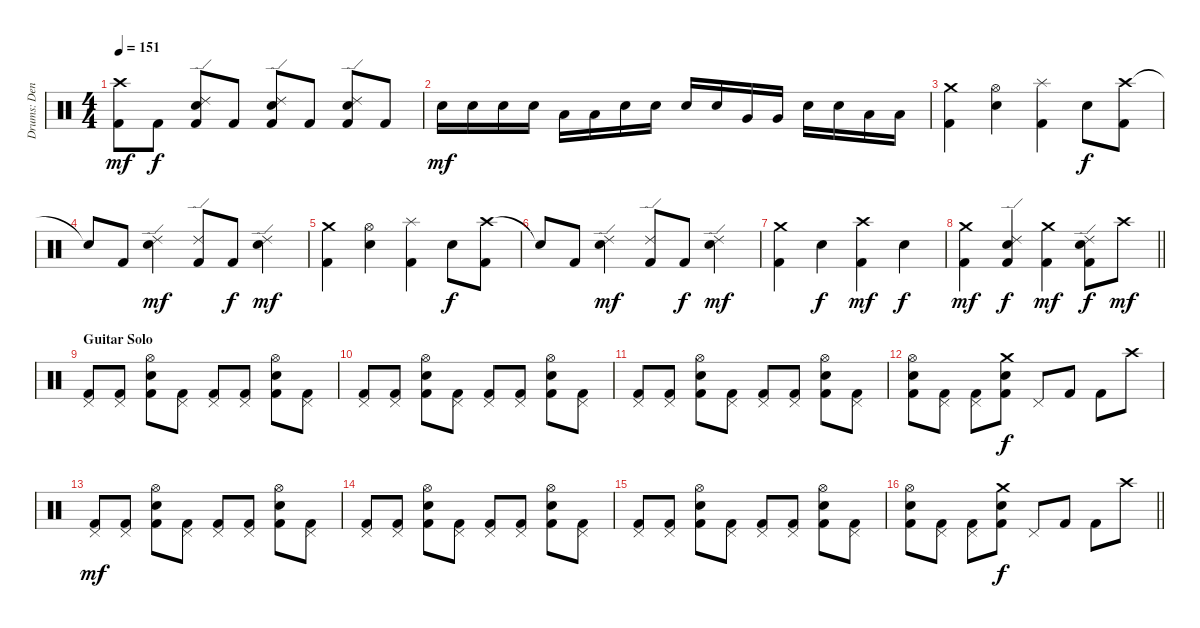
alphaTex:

\track ("Drums: Denny Carmassi" "Drums: Den") {instrument percussion}
\staff {score}
\articulation defaults
\ts (4 4)
\tempo 151
\clef neutral
\ks c
("Crash high (hit)" "Kick (hit) 2").8{dy mf} "Kick (hit) 2".8{dy f} ("Ride (edge) 2" "Snare (hit) 2" "Kick (hit) 2").8 "Kick (hit) 2".8 ("Ride (edge) 2" "Snare (hit) 2" "Kick (hit) 2").8 "Kick (hit) 2".8 ("Ride (edge) 2" "Snare (hit) 2" "Kick (hit) 2").8 "Kick (hit) 2".8 |
"Snare (hit) 2".16{dy mf} "Snare (hit) 2".16 "Snare (hit) 2".16 "Snare (hit) 2".16 "Low Tom (hit)".16 "Low Tom (hit)".16 "Snare (hit) 2".16 "Snare (hit) 2".16 "Snare (hit) 2".16 "Snare (hit) 2".16 "Very Low Tom (hit)".16 "Very Low Tom (hit)".16 "Snare (hit) 2".16 "Snare (hit) 2".16 "Low Floor Tom (hit)".16 "Low Floor Tom (hit)".16 |
("Crash medium (hit)" "Kick (hit) 2").4 ("Hi-Hat (open)" "Snare (hit) 2").4 ("Splash (hit)" "Kick (hit) 2").4 "Snare (hit) 2".8{dy f} ("Crash high (hit)" "Kick (hit) 2").8 |
"Snare (hit)"{t}.8 "Kick (hit) 2".8 ("Ride (edge) 2" "Snare (hit) 2").4{dy mf} ("Ride (edge) 2" "Kick (hit) 2").8 "Kick (hit) 2".8{dy f} ("Ride (edge) 2" "Snare (hit) 2").4{dy mf} |
("Crash medium (hit)" "Kick (hit) 2").4 ("Hi-Hat (open)" "Snare (hit) 2").4 ("Splash (hit)" "Kick (hit) 2").4 "Snare (hit) 2".8{dy f} ("Crash high (hit)" "Kick (hit) 2").8 |
"Snare (hit)"{t}.8 "Kick (hit) 2".8 ("Ride (edge) 2" "Snare (hit) 2").4{dy mf} ("Ride (edge) 2" "Kick (hit) 2").8 "Kick (hit) 2".8{dy f} ("Ride (edge) 2" "Snare (hit) 2").4{dy mf} |
("Crash medium (hit)" "Kick (hit) 2").4 "Snare (hit) 2".4{dy f} ("Crash high (hit)" "Kick (hit) 2").4{dy mf} "Snare (hit) 2".4{dy f} |
\barLineRight lightlight
("Crash medium (hit)" "Kick (hit) 2").4{dy mf} ("Ride (edge) 2" "Snare (hit) 2" "Kick (hit) 2").4{dy f} ("Crash medium (hit)" "Kick (hit) 2").4{dy mf} ("Ride (edge) 2" "Snare (hit) 2" "Kick (hit) 2").8{dy f} "Crash high (hit)".8{dy mf} |
\section ("" "Guitar Solo")
("Pedal Hi-Hat (hit)" "Kick (hit) 2").8 ("Pedal Hi-Hat (hit)" "Kick (hit) 2").8 ("Hi-Hat (open)" "Snare (hit) 2" "Kick (hit) 2").8 ("Pedal Hi-Hat (hit)" "Kick (hit) 2").8 ("Pedal Hi-Hat (hit)" "Kick (hit) 2").8 ("Pedal Hi-Hat (hit)" "Kick (hit) 2").8 ("Hi-Hat (open)" "Snare (hit) 2" "Kick (hit) 2").8 ("Pedal Hi-Hat (hit)" "Kick (hit) 2").8 |
("Pedal Hi-Hat (hit)" "Kick (hit) 2").8 ("Pedal Hi-Hat (hit)" "Kick (hit) 2").8 ("Hi-Hat (open)" "Snare (hit) 2" "Kick (hit) 2").8 ("Pedal Hi-Hat (hit)" "Kick (hit) 2").8 ("Pedal Hi-Hat (hit)" "Kick (hit) 2").8 ("Pedal Hi-Hat (hit)" "Kick (hit) 2").8 ("Hi-Hat (open)" "Snare (hit) 2" "Kick (hit) 2").8 ("Pedal Hi-Hat (hit)" "Kick (hit) 2").8 |
("Pedal Hi-Hat (hit)" "Kick (hit) 2").8 ("Pedal Hi-Hat (hit)" "Kick (hit) 2").8 ("Hi-Hat (open)" "Snare (hit) 2" "Kick (hit) 2").8 ("Pedal Hi-Hat (hit)" "Kick (hit) 2").8 ("Pedal Hi-Hat (hit)" "Kick (hit) 2").8 ("Pedal Hi-Hat (hit)" "Kick (hit) 2").8 ("Hi-Hat (open)" "Snare (hit) 2" "Kick (hit) 2").8 ("Pedal Hi-Hat (hit)" "Kick (hit) 2").8 |
("Hi-Hat (open)" "Snare (hit) 2" "Kick (hit) 2").8 ("Pedal Hi-Hat (hit)" "Kick (hit) 2").8 ("Pedal Hi-Hat (hit)" "Kick (hit) 2").8 ("Crash medium (hit)" "Snare (hit) 2" "Kick (hit) 2").8{dy f} "Pedal Hi-Hat (hit)".8 "Kick (hit) 2".8 "Kick (hit) 2".8 "Crash high (hit)".8 |
("Pedal Hi-Hat (hit)" "Kick (hit) 2").8{dy mf} ("Pedal Hi-Hat (hit)" "Kick (hit) 2").8 ("Hi-Hat (open)" "Snare (hit) 2" "Kick (hit) 2").8 ("Pedal Hi-Hat (hit)" "Kick (hit) 2").8 ("Pedal Hi-Hat (hit)" "Kick (hit) 2").8 ("Pedal Hi-Hat (hit)" "Kick (hit) 2").8 ("Hi-Hat (open)" "Snare (hit) 2" "Kick (hit) 2").8 ("Pedal Hi-Hat (hit)" "Kick (hit) 2").8 |
("Pedal Hi-Hat (hit)" "Kick (hit) 2").8 ("Pedal Hi-Hat (hit)" "Kick (hit) 2").8 ("Hi-Hat (open)" "Snare (hit) 2" "Kick (hit) 2").8 ("Pedal Hi-Hat (hit)" "Kick (hit) 2").8 ("Pedal Hi-Hat (hit)" "Kick (hit) 2").8 ("Pedal Hi-Hat (hit)" "Kick (hit) 2").8 ("Hi-Hat (open)" "Snare (hit) 2" "Kick (hit) 2").8 ("Pedal Hi-Hat (hit)" "Kick (hit) 2").8 |
("Pedal Hi-Hat (hit)" "Kick (hit) 2").8 ("Pedal Hi-Hat (hit)" "Kick (hit) 2").8 ("Hi-Hat (open)" "Snare (hit) 2" "Kick (hit) 2").8 ("Pedal Hi-Hat (hit)" "Kick (hit) 2").8 ("Pedal Hi-Hat (hit)" "Kick (hit) 2").8 ("Pedal Hi-Hat (hit)" "Kick (hit) 2").8 ("Hi-Hat (open)" "Snare (hit) 2" "Kick (hit) 2").8 ("Pedal Hi-Hat (hit)" "Kick (hit) 2").8 |
\barLineRight lightlight
("Hi-Hat (open)" "Snare (hit) 2" "Kick (hit) 2").8 ("Pedal Hi-Hat (hit)" "Kick (hit) 2").8 ("Pedal Hi-Hat (hit)" "Kick (hit) 2").8 ("Crash medium (hit)" "Snare (hit) 2" "Kick (hit) 2").8{dy f} "Pedal Hi-Hat (hit)".8 "Kick (hit) 2".8 "Kick (hit) 2".8 "Crash high (hit)".8
